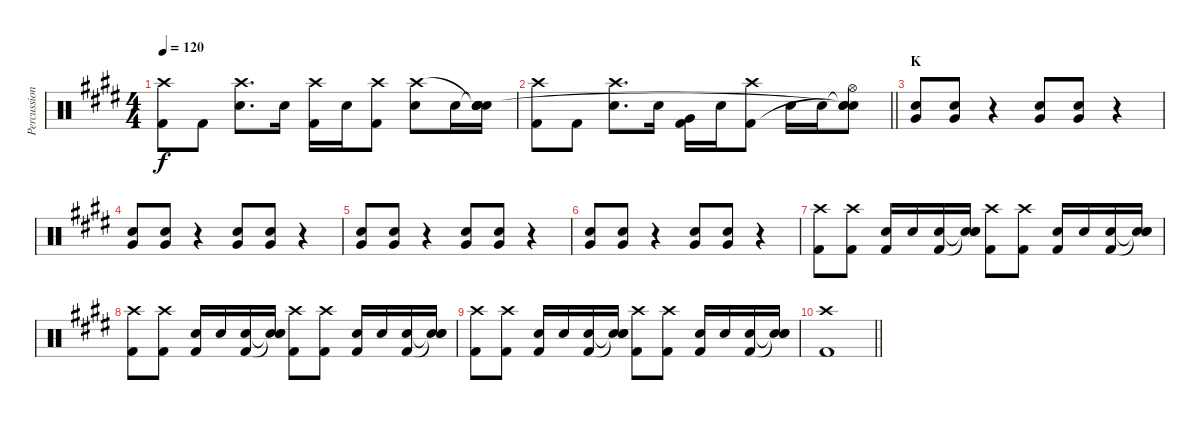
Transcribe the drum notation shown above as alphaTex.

\track ("Percussion" "Percussion") {instrument percussion}
\staff {score}
\articulation defaults
\ts (4 4)
\tempo 120
\clef neutral
\ks e
("Crash high (hit)" "Kick (hit) 2").8{dy f} "Kick (hit) 2".8 ("Crash high (hit)" "Electric Snare (hit)").8{d} "Electric Snare (hit)".16 ("Crash high (hit)" "Kick (hit) 2").16 "Electric Snare (hit)".16 ("Crash high (hit)" "Kick (hit) 2").8 ("Electric Snare (hit)" "Crash high (hit)").8 "Electric Snare (hit)".16 ("Snare (hit)"{t} "Snare (hit)"{t} "Snare (hit)"{t} "Snare (hit)"{t} "Electric Snare (hit)" "Snare (hit)"{t}).16 |
\barLineRight lightlight
("Crash high (hit)" "Kick (hit) 2").8 "Kick (hit) 2".8 ("Crash high (hit)" "Electric Snare (hit)").8{d} "Electric Snare (hit)".16 ("Very Low Tom (hit)" "Kick (hit) 2").16 "Electric Snare (hit)".16 ("Crash high (hit)" "Kick (hit) 2").8 "Electric Snare (hit)".16 "Electric Snare (hit)".16 ("Snare (hit)"{t} "Snare (hit)"{t} "Snare (hit)"{t} "Hi-Hat (open)").8 |
\section ("" "K")
("Electric Snare (hit)" "Very Low Tom (hit)").8 ("Electric Snare (hit)" "Very Low Tom (hit)").8 r.4 ("Electric Snare (hit)" "Very Low Tom (hit)").8 ("Electric Snare (hit)" "Very Low Tom (hit)").8 r.4 |
("Electric Snare (hit)" "Very Low Tom (hit)").8 ("Electric Snare (hit)" "Very Low Tom (hit)").8 r.4 ("Electric Snare (hit)" "Very Low Tom (hit)").8 ("Electric Snare (hit)" "Very Low Tom (hit)").8 r.4 |
("Electric Snare (hit)" "Very Low Tom (hit)").8 ("Electric Snare (hit)" "Very Low Tom (hit)").8 r.4 ("Electric Snare (hit)" "Very Low Tom (hit)").8 ("Electric Snare (hit)" "Very Low Tom (hit)").8 r.4 |
("Electric Snare (hit)" "Very Low Tom (hit)").8 ("Electric Snare (hit)" "Very Low Tom (hit)").8 r.4 ("Electric Snare (hit)" "Very Low Tom (hit)").8 ("Electric Snare (hit)" "Very Low Tom (hit)").8 r.4 |
("Crash high (hit)" "Kick (hit) 2").8 ("Crash high (hit)" "Kick (hit) 2").8 ("Electric Snare (hit)" "Kick (hit) 2").16 "Electric Snare (hit)".16 ("Electric Snare (hit)" "Kick (hit) 2").16 ("Snare (hit)"{t} "Snare (hit)"{t} "Electric Snare (hit)").16 ("Crash high (hit)" "Kick (hit) 2").8 ("Crash high (hit)" "Kick (hit) 2").8 ("Electric Snare (hit)" "Kick (hit) 2").16 "Electric Snare (hit)".16 ("Electric Snare (hit)" "Kick (hit) 2").16 ("Snare (hit)"{t} "Snare (hit)"{t} "Electric Snare (hit)").16 |
("Crash high (hit)" "Kick (hit) 2").8 ("Crash high (hit)" "Kick (hit) 2").8 ("Electric Snare (hit)" "Kick (hit) 2").16 "Electric Snare (hit)".16 ("Electric Snare (hit)" "Kick (hit) 2").16 ("Snare (hit)"{t} "Snare (hit)"{t} "Electric Snare (hit)").16 ("Crash high (hit)" "Kick (hit) 2").8 ("Crash high (hit)" "Kick (hit) 2").8 ("Electric Snare (hit)" "Kick (hit) 2").16 "Electric Snare (hit)".16 ("Electric Snare (hit)" "Kick (hit) 2").16 ("Snare (hit)"{t} "Snare (hit)"{t} "Electric Snare (hit)").16 |
("Crash high (hit)" "Kick (hit) 2").8 ("Crash high (hit)" "Kick (hit) 2").8 ("Electric Snare (hit)" "Kick (hit) 2").16 "Electric Snare (hit)".16 ("Electric Snare (hit)" "Kick (hit) 2").16 ("Snare (hit)"{t} "Snare (hit)"{t} "Electric Snare (hit)").16 ("Crash high (hit)" "Kick (hit) 2").8 ("Crash high (hit)" "Kick (hit) 2").8 ("Electric Snare (hit)" "Kick (hit) 2").16 "Electric Snare (hit)".16 ("Electric Snare (hit)" "Kick (hit) 2").16 ("Snare (hit)"{t} "Snare (hit)"{t} "Electric Snare (hit)").16 |
\barLineRight lightlight
("Crash high (hit)" "Kick (hit) 2").1
